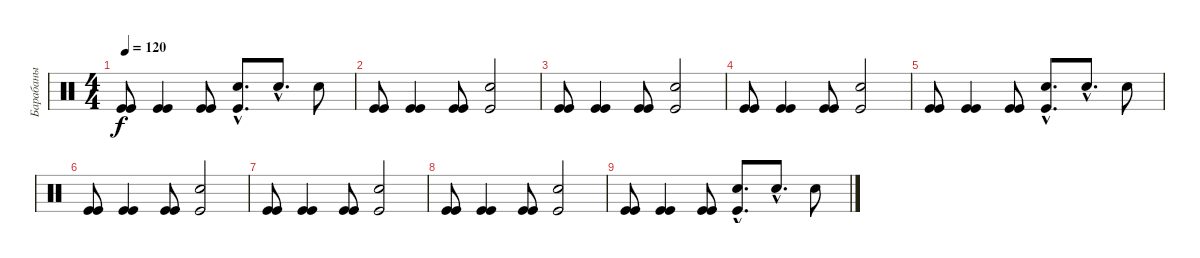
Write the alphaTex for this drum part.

\track ("Барабаны" "Барабаны") {instrument percussion}
\staff {score}
\articulation defaults
\ts (4 4)
\tempo 120
\clef neutral
\ks c
("Kick (hit)" "Kick (hit)").8{dy f} ("Kick (hit)" "Kick (hit)").4 ("Kick (hit)" "Kick (hit)").8 ("Kick (hit)"{hac} "Snare (hit) 2"{hac}).8{d} "Snare (hit) 2"{hac}.8{d volume 9} "Snare (hit) 2".8{volume 6} |
("Kick (hit)" "Kick (hit)").8{volume 13} ("Kick (hit)" "Kick (hit)").4 ("Kick (hit)" "Kick (hit)").8 ("Kick (hit)" "Snare (hit) 2").2 |
("Kick (hit)" "Kick (hit)").8 ("Kick (hit)" "Kick (hit)").4 ("Kick (hit)" "Kick (hit)").8 ("Kick (hit)" "Snare (hit) 2").2 |
("Kick (hit)" "Kick (hit)").8 ("Kick (hit)" "Kick (hit)").4 ("Kick (hit)" "Kick (hit)").8 ("Kick (hit)" "Snare (hit) 2").2 |
("Kick (hit)" "Kick (hit)").8 ("Kick (hit)" "Kick (hit)").4 ("Kick (hit)" "Kick (hit)").8 ("Kick (hit)"{hac} "Snare (hit) 2"{hac}).8{d} "Snare (hit) 2"{hac}.8{d volume 9} "Snare (hit) 2".8{volume 6} |
("Kick (hit)" "Kick (hit)").8{volume 13} ("Kick (hit)" "Kick (hit)").4 ("Kick (hit)" "Kick (hit)").8 ("Kick (hit)" "Snare (hit) 2").2 |
("Kick (hit)" "Kick (hit)").8 ("Kick (hit)" "Kick (hit)").4 ("Kick (hit)" "Kick (hit)").8 ("Kick (hit)" "Snare (hit) 2").2 |
("Kick (hit)" "Kick (hit)").8 ("Kick (hit)" "Kick (hit)").4 ("Kick (hit)" "Kick (hit)").8 ("Kick (hit)" "Snare (hit) 2").2 |
("Kick (hit)" "Kick (hit)").8 ("Kick (hit)" "Kick (hit)").4 ("Kick (hit)" "Kick (hit)").8 ("Kick (hit)"{hac} "Snare (hit) 2"{hac}).8{d} "Snare (hit) 2"{hac}.8{d volume 9} "Snare (hit) 2".8{volume 6}
